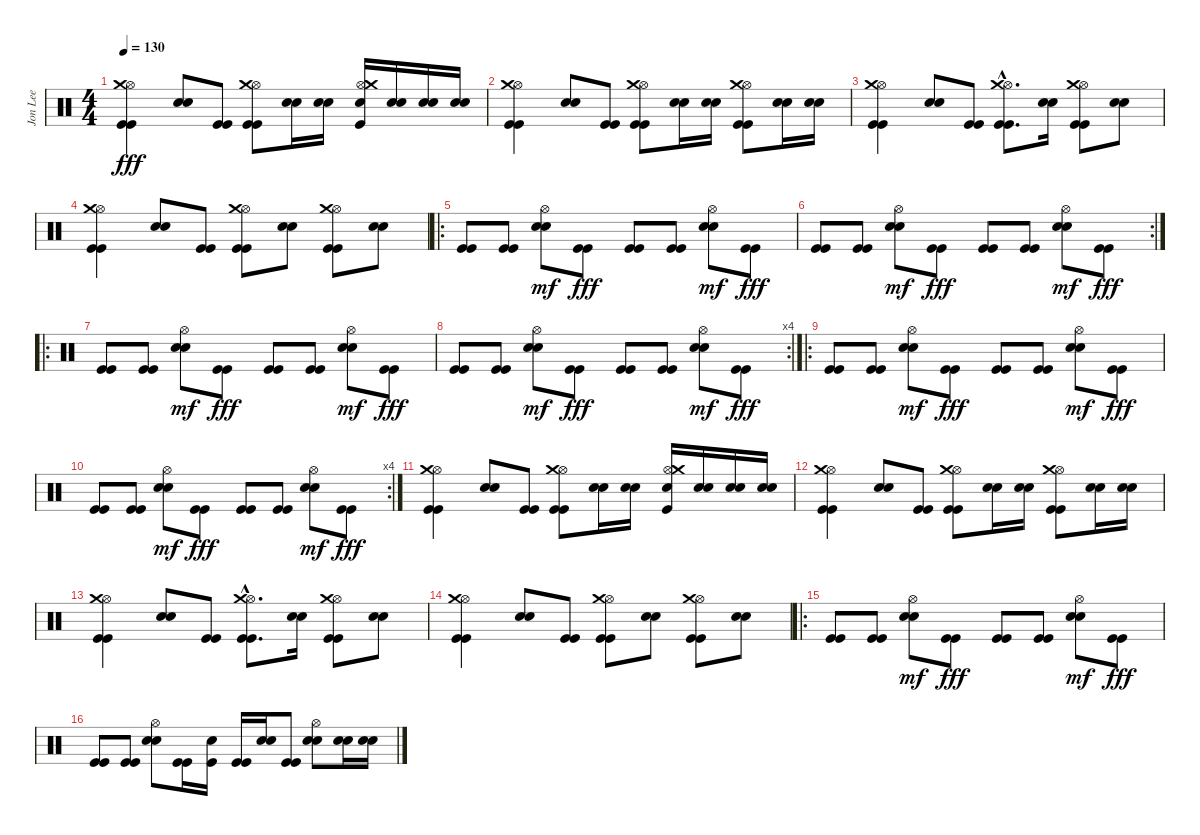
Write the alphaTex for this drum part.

\track ("Jon Lee" "Jon Lee") {instrument percussion}
\staff {score}
\articulation defaults
\ts (4 4)
\tempo 130
\clef neutral
\ks c
("Kick (hit)" "Kick (hit)" "Hi-Hat (open)" "Crash medium (hit)").4{dy fff} ("Electric Snare (hit)" "Snare (hit) 2").8 ("Kick (hit)" "Kick (hit)").8 ("Kick (hit)" "Kick (hit)" "Hi-Hat (open)" "Crash medium (hit)").8 ("Electric Snare (hit)" "Snare (hit) 2").16 ("Electric Snare (hit)" "Snare (hit) 2").16 ("Electric Snare (hit)" "Kick (hit)" "Hi-Hat (open)" "Crash medium (hit)").16 ("Electric Snare (hit)" "Snare (hit) 2").16 ("Electric Snare (hit)" "Snare (hit) 2").16 ("Electric Snare (hit)" "Snare (hit) 2").16 |
("Kick (hit)" "Kick (hit)" "Hi-Hat (open)" "Crash medium (hit)").4 ("Electric Snare (hit)" "Snare (hit) 2").8 ("Kick (hit)" "Kick (hit)").8 ("Kick (hit)" "Kick (hit)" "Hi-Hat (open)" "Crash medium (hit)").8 ("Electric Snare (hit)" "Snare (hit) 2").16 ("Electric Snare (hit)" "Snare (hit) 2").16 ("Kick (hit)" "Kick (hit)" "Hi-Hat (open)" "Crash medium (hit)").8 ("Electric Snare (hit)" "Snare (hit) 2").16 ("Electric Snare (hit)" "Snare (hit) 2").16 |
("Kick (hit)" "Kick (hit)" "Hi-Hat (open)" "Crash medium (hit)").4 ("Electric Snare (hit)" "Snare (hit) 2").8 ("Kick (hit)" "Kick (hit)").8 ("Kick (hit)"{hac} "Kick (hit)"{hac} "Hi-Hat (open)"{hac} "Crash medium (hit)"{hac}).8{d} ("Electric Snare (hit)" "Snare (hit) 2").16 ("Kick (hit)" "Kick (hit)" "Hi-Hat (open)" "Crash medium (hit)").8 ("Electric Snare (hit)" "Snare (hit) 2").8 |
("Kick (hit)" "Kick (hit)" "Hi-Hat (open)" "Crash medium (hit)").4 ("Electric Snare (hit)" "Snare (hit) 2").8 ("Kick (hit)" "Kick (hit)").8 ("Kick (hit)" "Kick (hit)" "Hi-Hat (open)" "Crash medium (hit)").8 ("Electric Snare (hit)" "Snare (hit) 2").8 ("Kick (hit)" "Kick (hit)" "Hi-Hat (open)" "Crash medium (hit)").8 ("Electric Snare (hit)" "Snare (hit) 2").8 |
\ro
("Kick (hit)" "Kick (hit)").8 ("Kick (hit)" "Kick (hit)").8 ("Electric Snare (hit)" "Snare (hit) 2" "Hi-Hat (open)").8{dy mf} ("Kick (hit)" "Kick (hit)").8{dy fff} ("Kick (hit)" "Kick (hit)").8 ("Kick (hit)" "Kick (hit)").8 ("Electric Snare (hit)" "Snare (hit) 2" "Hi-Hat (open)").8{dy mf} ("Kick (hit)" "Kick (hit)").8{dy fff} |
\rc 2
("Kick (hit)" "Kick (hit)").8 ("Kick (hit)" "Kick (hit)").8 ("Electric Snare (hit)" "Snare (hit) 2" "Hi-Hat (open)").8{dy mf} ("Kick (hit)" "Kick (hit)").8{dy fff} ("Kick (hit)" "Kick (hit)").8 ("Kick (hit)" "Kick (hit)").8 ("Electric Snare (hit)" "Snare (hit) 2" "Hi-Hat (open)").8{dy mf} ("Kick (hit)" "Kick (hit)").8{dy fff} |
\ro
("Kick (hit)" "Kick (hit)").8 ("Kick (hit)" "Kick (hit)").8 ("Electric Snare (hit)" "Snare (hit) 2" "Hi-Hat (open)").8{dy mf} ("Kick (hit)" "Kick (hit)").8{dy fff} ("Kick (hit)" "Kick (hit)").8 ("Kick (hit)" "Kick (hit)").8 ("Electric Snare (hit)" "Snare (hit) 2" "Hi-Hat (open)").8{dy mf} ("Kick (hit)" "Kick (hit)").8{dy fff} |
\rc 4
("Kick (hit)" "Kick (hit)").8 ("Kick (hit)" "Kick (hit)").8 ("Electric Snare (hit)" "Snare (hit) 2" "Hi-Hat (open)").8{dy mf} ("Kick (hit)" "Kick (hit)").8{dy fff} ("Kick (hit)" "Kick (hit)").8 ("Kick (hit)" "Kick (hit)").8 ("Electric Snare (hit)" "Snare (hit) 2" "Hi-Hat (open)").8{dy mf} ("Kick (hit)" "Kick (hit)").8{dy fff} |
\ro
("Kick (hit)" "Kick (hit)").8 ("Kick (hit)" "Kick (hit)").8 ("Electric Snare (hit)" "Snare (hit) 2" "Hi-Hat (open)").8{dy mf} ("Kick (hit)" "Kick (hit)").8{dy fff} ("Kick (hit)" "Kick (hit)").8 ("Kick (hit)" "Kick (hit)").8 ("Electric Snare (hit)" "Snare (hit) 2" "Hi-Hat (open)").8{dy mf} ("Kick (hit)" "Kick (hit)").8{dy fff} |
\rc 4
("Kick (hit)" "Kick (hit)").8 ("Kick (hit)" "Kick (hit)").8 ("Electric Snare (hit)" "Snare (hit) 2" "Hi-Hat (open)").8{dy mf} ("Kick (hit)" "Kick (hit)").8{dy fff} ("Kick (hit)" "Kick (hit)").8 ("Kick (hit)" "Kick (hit)").8 ("Electric Snare (hit)" "Snare (hit) 2" "Hi-Hat (open)").8{dy mf} ("Kick (hit)" "Kick (hit)").8{dy fff} |
("Kick (hit)" "Kick (hit)" "Hi-Hat (open)" "Crash medium (hit)").4 ("Electric Snare (hit)" "Snare (hit) 2").8 ("Kick (hit)" "Kick (hit)").8 ("Kick (hit)" "Kick (hit)" "Hi-Hat (open)" "Crash medium (hit)").8 ("Electric Snare (hit)" "Snare (hit) 2").16 ("Electric Snare (hit)" "Snare (hit) 2").16 ("Electric Snare (hit)" "Kick (hit)" "Hi-Hat (open)" "Crash medium (hit)").16 ("Electric Snare (hit)" "Snare (hit) 2").16 ("Electric Snare (hit)" "Snare (hit) 2").16 ("Electric Snare (hit)" "Snare (hit) 2").16 |
("Kick (hit)" "Kick (hit)" "Hi-Hat (open)" "Crash medium (hit)").4 ("Electric Snare (hit)" "Snare (hit) 2").8 ("Kick (hit)" "Kick (hit)").8 ("Kick (hit)" "Kick (hit)" "Hi-Hat (open)" "Crash medium (hit)").8 ("Electric Snare (hit)" "Snare (hit) 2").16 ("Electric Snare (hit)" "Snare (hit) 2").16 ("Kick (hit)" "Kick (hit)" "Hi-Hat (open)" "Crash medium (hit)").8 ("Electric Snare (hit)" "Snare (hit) 2").16 ("Electric Snare (hit)" "Snare (hit) 2").16 |
("Kick (hit)" "Kick (hit)" "Hi-Hat (open)" "Crash medium (hit)").4 ("Electric Snare (hit)" "Snare (hit) 2").8 ("Kick (hit)" "Kick (hit)").8 ("Kick (hit)"{hac} "Kick (hit)"{hac} "Hi-Hat (open)"{hac} "Crash medium (hit)"{hac}).8{d} ("Electric Snare (hit)" "Snare (hit) 2").16 ("Kick (hit)" "Kick (hit)" "Hi-Hat (open)" "Crash medium (hit)").8 ("Electric Snare (hit)" "Snare (hit) 2").8 |
("Kick (hit)" "Kick (hit)" "Hi-Hat (open)" "Crash medium (hit)").4 ("Electric Snare (hit)" "Snare (hit) 2").8 ("Kick (hit)" "Kick (hit)").8 ("Kick (hit)" "Kick (hit)" "Hi-Hat (open)" "Crash medium (hit)").8 ("Electric Snare (hit)" "Snare (hit) 2").8 ("Kick (hit)" "Kick (hit)" "Hi-Hat (open)" "Crash medium (hit)").8 ("Electric Snare (hit)" "Snare (hit) 2").8 |
\ro
("Kick (hit)" "Kick (hit)").8 ("Kick (hit)" "Kick (hit)").8 ("Electric Snare (hit)" "Snare (hit) 2" "Hi-Hat (open)").8{dy mf} ("Kick (hit)" "Kick (hit)").8{dy fff} ("Kick (hit)" "Kick (hit)").8 ("Kick (hit)" "Kick (hit)").8 ("Electric Snare (hit)" "Snare (hit) 2" "Hi-Hat (open)").8{dy mf} ("Kick (hit)" "Kick (hit)").8{dy fff} |
("Kick (hit)" "Kick (hit)").8 ("Kick (hit)" "Kick (hit)").8 ("Electric Snare (hit)" "Snare (hit) 2" "Hi-Hat (open)").8 ("Kick (hit)" "Kick (hit)").16 ("Snare (hit) 2" "Kick (hit)").16 ("Kick (hit)" "Kick (hit)").16 ("Snare (hit) 2" "Electric Snare (hit)").16 ("Kick (hit)" "Kick (hit)").8 ("Snare (hit) 2" "Electric Snare (hit)" "Hi-Hat (open)").8 ("Snare (hit) 2" "Electric Snare (hit)").16 ("Snare (hit) 2" "Electric Snare (hit)").16
